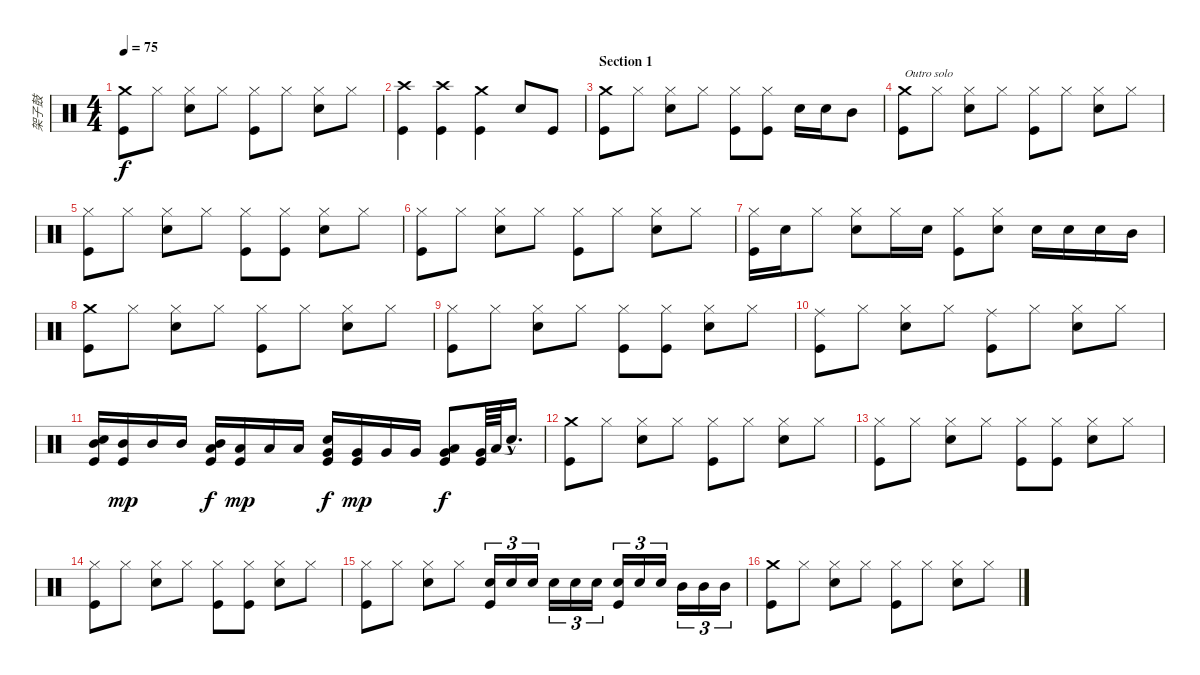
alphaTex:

\track ("架子鼓" "架子鼓") {instrument percussion}
\staff {score}
\articulation defaults
\ts (4 4)
\tempo 75
\clef neutral
\ks c
("Crash medium (hit)" "Kick (hit)").8{dy f} "Hi-Hat (closed)".8 ("Hi-Hat (closed)" "Snare (hit) 2").8 "Hi-Hat (closed)".8 ("Hi-Hat (closed)" "Kick (hit)").8 "Hi-Hat (closed)".8 ("Hi-Hat (closed)" "Snare (hit) 2").8 "Hi-Hat (closed)".8 |
("Crash high (hit)" "Kick (hit)").4 ("Crash high (hit)" "Kick (hit)").4 ("Crash medium (hit)" "Kick (hit)").4 "Snare (hit) 2".8 "Kick (hit)".8 |
\section ("" "Section 1")
("Crash medium (hit)" "Kick (hit)").8 "Hi-Hat (closed)".8 ("Hi-Hat (closed)" "Snare (hit) 2").8 "Hi-Hat (closed)".8 ("Hi-Hat (closed)" "Kick (hit)").8 ("Hi-Hat (closed)" "Kick (hit)").8 "Snare (hit) 2".16 "Snare (hit) 2".16 "Mid Tom (hit)".8 |
("Crash medium (hit)" "Kick (hit)").8{txt "Outro solo"} "Hi-Hat (closed)".8 ("Hi-Hat (closed)" "Snare (hit) 2").8 "Hi-Hat (closed)".8 ("Hi-Hat (closed)" "Kick (hit)").8 "Hi-Hat (closed)".8 ("Hi-Hat (closed)" "Snare (hit) 2").8 "Hi-Hat (closed)".8 |
("Hi-Hat (closed)" "Kick (hit)").8 "Hi-Hat (closed)".8 ("Hi-Hat (closed)" "Snare (hit) 2").8 "Hi-Hat (closed)".8 ("Hi-Hat (closed)" "Kick (hit)").8 ("Hi-Hat (closed)" "Kick (hit)").8 ("Hi-Hat (closed)" "Snare (hit) 2").8 "Hi-Hat (closed)".8 |
("Hi-Hat (closed)" "Kick (hit)").8 "Hi-Hat (closed)".8 ("Hi-Hat (closed)" "Snare (hit) 2").8 "Hi-Hat (closed)".8 ("Hi-Hat (closed)" "Kick (hit)").8 "Hi-Hat (closed)".8 ("Hi-Hat (closed)" "Snare (hit) 2").8 "Hi-Hat (closed)".8 |
("Hi-Hat (closed)" "Kick (hit)").16 "Snare (hit) 2".16 "Hi-Hat (closed)".8 ("Hi-Hat (closed)" "Snare (hit) 2").8 "Hi-Hat (closed)".16 "Snare (hit) 2".16 ("Hi-Hat (closed)" "Kick (hit)").8 ("Hi-Hat (closed)" "Snare (hit) 2").8 "Snare (hit) 2".16 "Snare (hit) 2".16 "Snare (hit) 2".16 "Mid Tom (hit)".16 |
("Crash medium (hit)" "Kick (hit)").8 "Hi-Hat (closed)".8 ("Hi-Hat (closed)" "Snare (hit) 2").8 "Hi-Hat (closed)".8 ("Hi-Hat (closed)" "Kick (hit)").8 "Hi-Hat (closed)".8 ("Hi-Hat (closed)" "Snare (hit) 2").8 "Hi-Hat (closed)".8 |
("Hi-Hat (closed)" "Kick (hit)").8 "Hi-Hat (closed)".8 ("Hi-Hat (closed)" "Snare (hit) 2").8 "Hi-Hat (closed)".8 ("Hi-Hat (closed)" "Kick (hit)").8 ("Hi-Hat (closed)" "Kick (hit)").8 ("Hi-Hat (closed)" "Snare (hit) 2").8 "Hi-Hat (closed)".8 |
("Ride (middle)" "Kick (hit)").8 "Hi-Hat (closed)".8 ("Hi-Hat (closed)" "Snare (hit) 2").8 "Hi-Hat (closed)".8 ("Ride (middle)" "Kick (hit)").8 "Hi-Hat (closed)".8 ("Hi-Hat (closed)" "Snare (hit) 2").8 "Hi-Hat (closed)".8 |
("Snare (hit) 2" "Mid Tom (hit)" "Kick (hit)").16 ("Mid Tom (hit)" "Kick (hit)").16{dy mp} "Mid Tom (hit)".16 "Mid Tom (hit)".16 ("Mid Tom (hit)" "Low Tom (hit)" "Kick (hit)").16{dy f} ("Low Tom (hit)" "Kick (hit)").16{dy mp} "Low Tom (hit)".16 "Low Tom (hit)".16 ("Snare (hit) 2" "Very Low Tom (hit)" "Kick (hit)").16{dy f} ("Very Low Tom (hit)" "Kick (hit)").16{dy mp} "Very Low Tom (hit)".16 "Very Low Tom (hit)".16 ("Low Tom (hit)" "Very Low Tom (hit)" "Kick (hit)").8{dy f} ("Very Low Tom (hit)" "Kick (hit)").64 "Low Tom (hit)".64 "Snare (hit)"{hac t}.16{d} |
("Crash medium (hit)" "Kick (hit)").8 "Hi-Hat (closed)".8 ("Hi-Hat (closed)" "Snare (hit) 2").8 "Hi-Hat (closed)".8 ("Hi-Hat (closed)" "Kick (hit)").8 "Hi-Hat (closed)".8 ("Hi-Hat (closed)" "Snare (hit) 2").8 "Hi-Hat (closed)".8 |
("Hi-Hat (closed)" "Kick (hit)").8 "Hi-Hat (closed)".8 ("Hi-Hat (closed)" "Snare (hit) 2").8 "Hi-Hat (closed)".8 ("Hi-Hat (closed)" "Kick (hit)").8 ("Hi-Hat (closed)" "Kick (hit)").8 ("Hi-Hat (closed)" "Snare (hit) 2").8 "Hi-Hat (closed)".8 |
("Hi-Hat (closed)" "Kick (hit)").8 "Hi-Hat (closed)".8 ("Hi-Hat (closed)" "Snare (hit) 2").8 "Hi-Hat (closed)".8 ("Hi-Hat (closed)" "Kick (hit)").8 ("Hi-Hat (closed)" "Kick (hit)").8 ("Hi-Hat (closed)" "Snare (hit) 2").8 "Hi-Hat (closed)".8 |
("Hi-Hat (closed)" "Kick (hit)").8 "Hi-Hat (closed)".8 ("Hi-Hat (closed)" "Snare (hit) 2").8 "Hi-Hat (closed)".8 ("Snare (hit) 2" "Kick (hit)").16{tu (3 2)} "Snare (hit) 2".16{tu (3 2)} "Snare (hit) 2".16{tu (3 2)} "Snare (hit) 2".16{tu (3 2)} "Snare (hit) 2".16{tu (3 2)} "Snare (hit) 2".16{tu (3 2)} ("Snare (hit) 2" "Kick (hit)").16{tu (3 2)} "Snare (hit) 2".16{tu (3 2)} "Snare (hit) 2".16{tu (3 2)} "Mid Tom (hit)".16{tu (3 2)} "Mid Tom (hit)".16{tu (3 2)} "Mid Tom (hit)".16{tu (3 2)} |
("Crash medium (hit)" "Kick (hit)").8 "Hi-Hat (closed)".8 ("Hi-Hat (closed)" "Snare (hit) 2").8 "Hi-Hat (closed)".8 ("Hi-Hat (closed)" "Kick (hit)").8 "Hi-Hat (closed)".8 ("Hi-Hat (closed)" "Snare (hit) 2").8 "Hi-Hat (closed)".8
